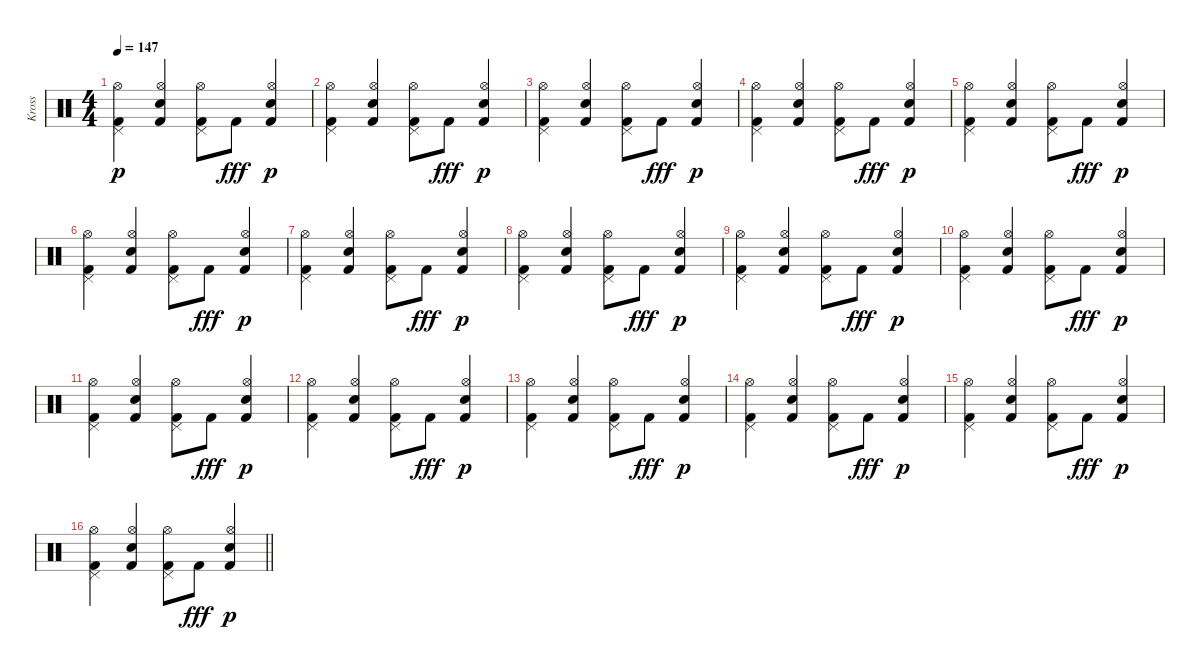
\track ("Kross" "Kross") {instrument percussion}
\staff {score}
\articulation defaults
\ts (4 4)
\tempo 147
\clef neutral
\ks c
("Kick (hit) 2" "Pedal Hi-Hat (hit)" "Hi-Hat (open)").4{dy p} ("Kick (hit) 2" "Snare (hit) 2" "Hi-Hat (open)").4 ("Kick (hit) 2" "Pedal Hi-Hat (hit)" "Hi-Hat (open)").8 "Kick (hit) 2".8{dy fff} ("Kick (hit) 2" "Snare (hit) 2" "Hi-Hat (open)").4{dy p} |
("Kick (hit) 2" "Pedal Hi-Hat (hit)" "Hi-Hat (open)").4 ("Kick (hit) 2" "Snare (hit) 2" "Hi-Hat (open)").4 ("Kick (hit) 2" "Pedal Hi-Hat (hit)" "Hi-Hat (open)").8 "Kick (hit) 2".8{dy fff} ("Kick (hit) 2" "Snare (hit) 2" "Hi-Hat (open)").4{dy p} |
("Kick (hit) 2" "Pedal Hi-Hat (hit)" "Hi-Hat (open)").4 ("Kick (hit) 2" "Snare (hit) 2" "Hi-Hat (open)").4 ("Kick (hit) 2" "Pedal Hi-Hat (hit)" "Hi-Hat (open)").8 "Kick (hit) 2".8{dy fff} ("Kick (hit) 2" "Snare (hit) 2" "Hi-Hat (open)").4{dy p} |
("Kick (hit) 2" "Pedal Hi-Hat (hit)" "Hi-Hat (open)").4 ("Kick (hit) 2" "Snare (hit) 2" "Hi-Hat (open)").4 ("Kick (hit) 2" "Pedal Hi-Hat (hit)" "Hi-Hat (open)").8 "Kick (hit) 2".8{dy fff} ("Kick (hit) 2" "Snare (hit) 2" "Hi-Hat (open)").4{dy p} |
("Kick (hit) 2" "Pedal Hi-Hat (hit)" "Hi-Hat (open)").4 ("Kick (hit) 2" "Snare (hit) 2" "Hi-Hat (open)").4 ("Kick (hit) 2" "Pedal Hi-Hat (hit)" "Hi-Hat (open)").8 "Kick (hit) 2".8{dy fff} ("Kick (hit) 2" "Snare (hit) 2" "Hi-Hat (open)").4{dy p} |
("Kick (hit) 2" "Pedal Hi-Hat (hit)" "Hi-Hat (open)").4 ("Kick (hit) 2" "Snare (hit) 2" "Hi-Hat (open)").4 ("Kick (hit) 2" "Pedal Hi-Hat (hit)" "Hi-Hat (open)").8 "Kick (hit) 2".8{dy fff} ("Kick (hit) 2" "Snare (hit) 2" "Hi-Hat (open)").4{dy p} |
("Kick (hit) 2" "Pedal Hi-Hat (hit)" "Hi-Hat (open)").4 ("Kick (hit) 2" "Snare (hit) 2" "Hi-Hat (open)").4 ("Kick (hit) 2" "Pedal Hi-Hat (hit)" "Hi-Hat (open)").8 "Kick (hit) 2".8{dy fff} ("Kick (hit) 2" "Snare (hit) 2" "Hi-Hat (open)").4{dy p} |
("Kick (hit) 2" "Pedal Hi-Hat (hit)" "Hi-Hat (open)").4 ("Kick (hit) 2" "Snare (hit) 2" "Hi-Hat (open)").4 ("Kick (hit) 2" "Pedal Hi-Hat (hit)" "Hi-Hat (open)").8 "Kick (hit) 2".8{dy fff} ("Kick (hit) 2" "Snare (hit) 2" "Hi-Hat (open)").4{dy p} |
("Kick (hit) 2" "Pedal Hi-Hat (hit)" "Hi-Hat (open)").4 ("Kick (hit) 2" "Snare (hit) 2" "Hi-Hat (open)").4 ("Kick (hit) 2" "Pedal Hi-Hat (hit)" "Hi-Hat (open)").8 "Kick (hit) 2".8{dy fff} ("Kick (hit) 2" "Snare (hit) 2" "Hi-Hat (open)").4{dy p} |
("Kick (hit) 2" "Pedal Hi-Hat (hit)" "Hi-Hat (open)").4 ("Kick (hit) 2" "Snare (hit) 2" "Hi-Hat (open)").4 ("Kick (hit) 2" "Pedal Hi-Hat (hit)" "Hi-Hat (open)").8 "Kick (hit) 2".8{dy fff} ("Kick (hit) 2" "Snare (hit) 2" "Hi-Hat (open)").4{dy p} |
("Kick (hit) 2" "Pedal Hi-Hat (hit)" "Hi-Hat (open)").4 ("Kick (hit) 2" "Snare (hit) 2" "Hi-Hat (open)").4 ("Kick (hit) 2" "Pedal Hi-Hat (hit)" "Hi-Hat (open)").8 "Kick (hit) 2".8{dy fff} ("Kick (hit) 2" "Snare (hit) 2" "Hi-Hat (open)").4{dy p} |
("Kick (hit) 2" "Pedal Hi-Hat (hit)" "Hi-Hat (open)").4 ("Kick (hit) 2" "Snare (hit) 2" "Hi-Hat (open)").4 ("Kick (hit) 2" "Pedal Hi-Hat (hit)" "Hi-Hat (open)").8 "Kick (hit) 2".8{dy fff} ("Kick (hit) 2" "Snare (hit) 2" "Hi-Hat (open)").4{dy p} |
("Kick (hit) 2" "Pedal Hi-Hat (hit)" "Hi-Hat (open)").4 ("Kick (hit) 2" "Snare (hit) 2" "Hi-Hat (open)").4 ("Kick (hit) 2" "Pedal Hi-Hat (hit)" "Hi-Hat (open)").8 "Kick (hit) 2".8{dy fff} ("Kick (hit) 2" "Snare (hit) 2" "Hi-Hat (open)").4{dy p} |
("Kick (hit) 2" "Pedal Hi-Hat (hit)" "Hi-Hat (open)").4 ("Kick (hit) 2" "Snare (hit) 2" "Hi-Hat (open)").4 ("Kick (hit) 2" "Pedal Hi-Hat (hit)" "Hi-Hat (open)").8 "Kick (hit) 2".8{dy fff} ("Kick (hit) 2" "Snare (hit) 2" "Hi-Hat (open)").4{dy p} |
("Kick (hit) 2" "Pedal Hi-Hat (hit)" "Hi-Hat (open)").4 ("Kick (hit) 2" "Snare (hit) 2" "Hi-Hat (open)").4 ("Kick (hit) 2" "Pedal Hi-Hat (hit)" "Hi-Hat (open)").8 "Kick (hit) 2".8{dy fff} ("Kick (hit) 2" "Snare (hit) 2" "Hi-Hat (open)").4{dy p} |
\barLineRight lightlight
("Kick (hit) 2" "Pedal Hi-Hat (hit)" "Hi-Hat (open)").4 ("Kick (hit) 2" "Snare (hit) 2" "Hi-Hat (open)").4 ("Kick (hit) 2" "Pedal Hi-Hat (hit)" "Hi-Hat (open)").8 "Kick (hit) 2".8{dy fff} ("Kick (hit) 2" "Snare (hit) 2" "Hi-Hat (open)").4{dy p}
